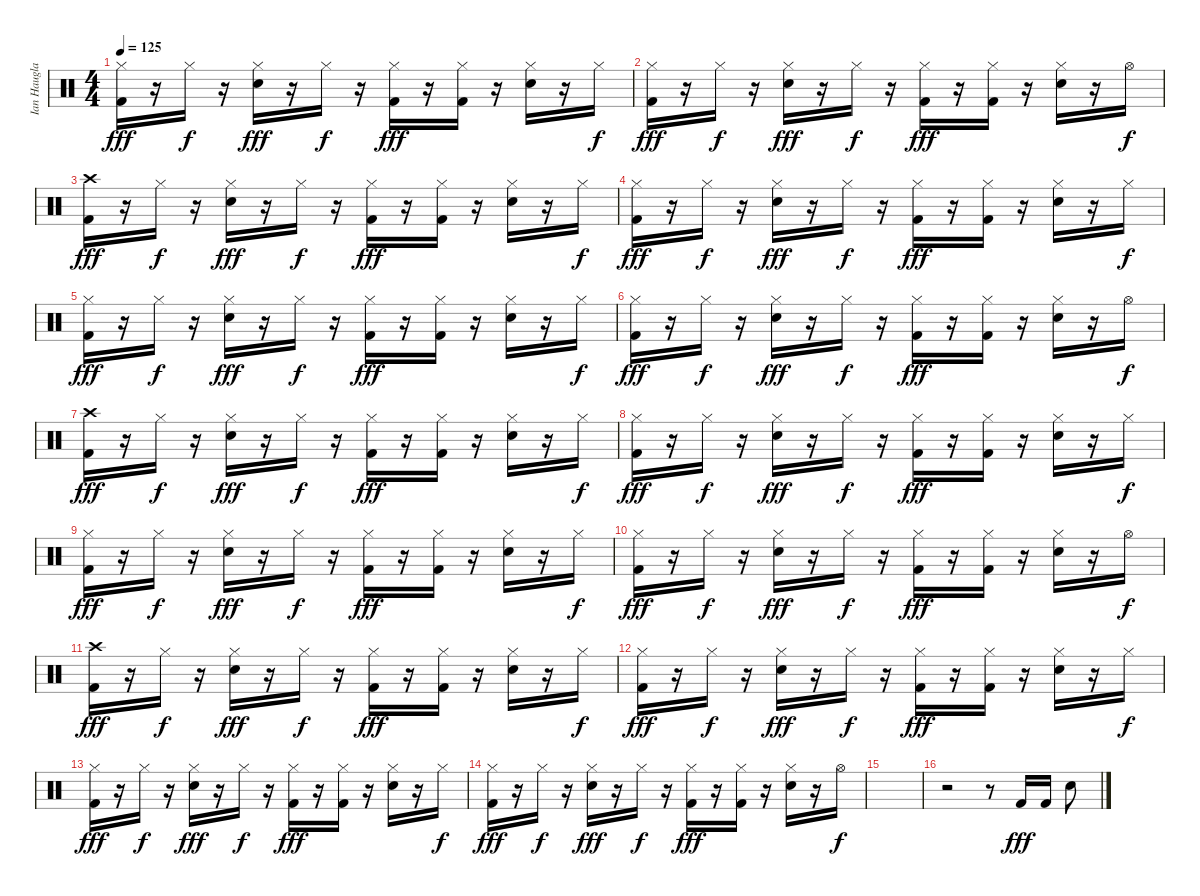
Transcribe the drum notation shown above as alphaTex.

\track ("Ian Haugland" "Ian Haugla") {instrument percussion}
\staff {score}
\articulation defaults
\ts (4 4)
\tempo 125
\clef neutral
\ks c
("Hi-Hat (closed)" "Kick (hit) 2").16{dy fff} r.16 "Hi-Hat (closed)".16{dy f} r.16 ("Hi-Hat (closed)" "Electric Snare (hit)").16{dy fff} r.16 "Hi-Hat (closed)".16{dy f} r.16 ("Hi-Hat (closed)" "Kick (hit) 2").16{dy fff} r.16 ("Hi-Hat (closed)" "Kick (hit) 2").16 r.16 ("Hi-Hat (closed)" "Electric Snare (hit)").16 r.16 "Hi-Hat (closed)".16{dy f} |
("Hi-Hat (closed)" "Kick (hit) 2").16{dy fff} r.16 "Hi-Hat (closed)".16{dy f} r.16 ("Hi-Hat (closed)" "Electric Snare (hit)").16{dy fff} r.16 "Hi-Hat (closed)".16{dy f} r.16 ("Hi-Hat (closed)" "Kick (hit) 2").16{dy fff} r.16 ("Hi-Hat (closed)" "Kick (hit) 2").16 r.16 ("Hi-Hat (closed)" "Electric Snare (hit)").16 r.16 "Hi-Hat (open)".16{dy f} |
("Crash high (hit)" "Kick (hit) 2").16{dy fff} r.16 "Hi-Hat (closed)".16{dy f} r.16 ("Hi-Hat (closed)" "Electric Snare (hit)").16{dy fff} r.16 "Hi-Hat (closed)".16{dy f} r.16 ("Hi-Hat (closed)" "Kick (hit) 2").16{dy fff} r.16 ("Hi-Hat (closed)" "Kick (hit) 2").16 r.16 ("Hi-Hat (closed)" "Electric Snare (hit)").16 r.16 "Hi-Hat (closed)".16{dy f} |
("Hi-Hat (closed)" "Kick (hit) 2").16{dy fff} r.16 "Hi-Hat (closed)".16{dy f} r.16 ("Hi-Hat (closed)" "Electric Snare (hit)").16{dy fff} r.16 "Hi-Hat (closed)".16{dy f} r.16 ("Hi-Hat (closed)" "Kick (hit) 2").16{dy fff} r.16 ("Hi-Hat (closed)" "Kick (hit) 2").16 r.16 ("Hi-Hat (closed)" "Electric Snare (hit)").16 r.16 "Hi-Hat (closed)".16{dy f} |
("Hi-Hat (closed)" "Kick (hit) 2").16{dy fff} r.16 "Hi-Hat (closed)".16{dy f} r.16 ("Hi-Hat (closed)" "Electric Snare (hit)").16{dy fff} r.16 "Hi-Hat (closed)".16{dy f} r.16 ("Hi-Hat (closed)" "Kick (hit) 2").16{dy fff} r.16 ("Hi-Hat (closed)" "Kick (hit) 2").16 r.16 ("Hi-Hat (closed)" "Electric Snare (hit)").16 r.16 "Hi-Hat (closed)".16{dy f} |
("Hi-Hat (closed)" "Kick (hit) 2").16{dy fff} r.16 "Hi-Hat (closed)".16{dy f} r.16 ("Hi-Hat (closed)" "Electric Snare (hit)").16{dy fff} r.16 "Hi-Hat (closed)".16{dy f} r.16 ("Hi-Hat (closed)" "Kick (hit) 2").16{dy fff} r.16 ("Hi-Hat (closed)" "Kick (hit) 2").16 r.16 ("Hi-Hat (closed)" "Electric Snare (hit)").16 r.16 "Hi-Hat (open)".16{dy f} |
("Crash high (hit)" "Kick (hit) 2").16{dy fff} r.16 "Hi-Hat (closed)".16{dy f} r.16 ("Hi-Hat (closed)" "Electric Snare (hit)").16{dy fff} r.16 "Hi-Hat (closed)".16{dy f} r.16 ("Hi-Hat (closed)" "Kick (hit) 2").16{dy fff} r.16 ("Hi-Hat (closed)" "Kick (hit) 2").16 r.16 ("Hi-Hat (closed)" "Electric Snare (hit)").16 r.16 "Hi-Hat (closed)".16{dy f} |
("Hi-Hat (closed)" "Kick (hit) 2").16{dy fff} r.16 "Hi-Hat (closed)".16{dy f} r.16 ("Hi-Hat (closed)" "Electric Snare (hit)").16{dy fff} r.16 "Hi-Hat (closed)".16{dy f} r.16 ("Hi-Hat (closed)" "Kick (hit) 2").16{dy fff} r.16 ("Hi-Hat (closed)" "Kick (hit) 2").16 r.16 ("Hi-Hat (closed)" "Electric Snare (hit)").16 r.16 "Hi-Hat (closed)".16{dy f} |
("Hi-Hat (closed)" "Kick (hit) 2").16{dy fff} r.16 "Hi-Hat (closed)".16{dy f} r.16 ("Hi-Hat (closed)" "Electric Snare (hit)").16{dy fff} r.16 "Hi-Hat (closed)".16{dy f} r.16 ("Hi-Hat (closed)" "Kick (hit) 2").16{dy fff} r.16 ("Hi-Hat (closed)" "Kick (hit) 2").16 r.16 ("Hi-Hat (closed)" "Electric Snare (hit)").16 r.16 "Hi-Hat (closed)".16{dy f} |
("Hi-Hat (closed)" "Kick (hit) 2").16{dy fff} r.16 "Hi-Hat (closed)".16{dy f} r.16 ("Hi-Hat (closed)" "Electric Snare (hit)").16{dy fff} r.16 "Hi-Hat (closed)".16{dy f} r.16 ("Hi-Hat (closed)" "Kick (hit) 2").16{dy fff} r.16 ("Hi-Hat (closed)" "Kick (hit) 2").16 r.16 ("Hi-Hat (closed)" "Electric Snare (hit)").16 r.16 "Hi-Hat (open)".16{dy f} |
("Crash high (hit)" "Kick (hit) 2").16{dy fff} r.16 "Hi-Hat (closed)".16{dy f} r.16 ("Hi-Hat (closed)" "Electric Snare (hit)").16{dy fff} r.16 "Hi-Hat (closed)".16{dy f} r.16 ("Hi-Hat (closed)" "Kick (hit) 2").16{dy fff} r.16 ("Hi-Hat (closed)" "Kick (hit) 2").16 r.16 ("Hi-Hat (closed)" "Electric Snare (hit)").16 r.16 "Hi-Hat (closed)".16{dy f} |
("Hi-Hat (closed)" "Kick (hit) 2").16{dy fff} r.16 "Hi-Hat (closed)".16{dy f} r.16 ("Hi-Hat (closed)" "Electric Snare (hit)").16{dy fff} r.16 "Hi-Hat (closed)".16{dy f} r.16 ("Hi-Hat (closed)" "Kick (hit) 2").16{dy fff} r.16 ("Hi-Hat (closed)" "Kick (hit) 2").16 r.16 ("Hi-Hat (closed)" "Electric Snare (hit)").16 r.16 "Hi-Hat (closed)".16{dy f} |
("Hi-Hat (closed)" "Kick (hit) 2").16{dy fff} r.16 "Hi-Hat (closed)".16{dy f} r.16 ("Hi-Hat (closed)" "Electric Snare (hit)").16{dy fff} r.16 "Hi-Hat (closed)".16{dy f} r.16 ("Hi-Hat (closed)" "Kick (hit) 2").16{dy fff} r.16 ("Hi-Hat (closed)" "Kick (hit) 2").16 r.16 ("Hi-Hat (closed)" "Electric Snare (hit)").16 r.16 "Hi-Hat (closed)".16{dy f} |
("Hi-Hat (closed)" "Kick (hit) 2").16{dy fff} r.16 "Hi-Hat (closed)".16{dy f} r.16 ("Hi-Hat (closed)" "Electric Snare (hit)").16{dy fff} r.16 "Hi-Hat (closed)".16{dy f} r.16 ("Hi-Hat (closed)" "Kick (hit) 2").16{dy fff} r.16 ("Hi-Hat (closed)" "Kick (hit) 2").16 r.16 ("Hi-Hat (closed)" "Electric Snare (hit)").16 r.16 "Hi-Hat (open)".16{dy f} |
|
r.2 r.8 "Kick (hit) 2".16{dy fff} "Kick (hit) 2".16 "Electric Snare (hit)".8
